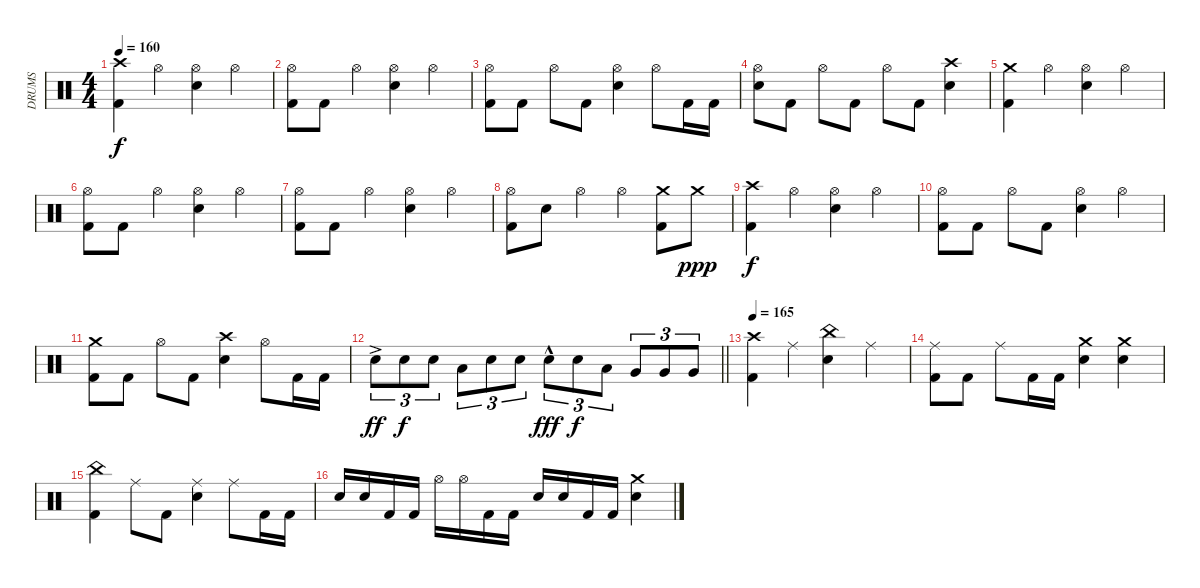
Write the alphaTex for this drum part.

\track ("DRUMS" "DRUMS") {instrument percussion}
\staff {score}
\articulation defaults
\ts (4 4)
\tempo 160
\clef neutral
\ks c
("Crash high (hit)" "Kick (hit) 2").4{dy f} "Hi-Hat (open)".4 ("Hi-Hat (open)" "Snare (hit) 2").4 "Hi-Hat (open)".4 |
("Hi-Hat (open)" "Kick (hit) 2").8 "Kick (hit) 2".8 "Hi-Hat (open)".4 ("Hi-Hat (open)" "Snare (hit) 2").4 "Hi-Hat (open)".4 |
("Hi-Hat (open)" "Kick (hit) 2").8 "Kick (hit) 2".8 "Hi-Hat (open)".8 "Kick (hit) 2".8 ("Hi-Hat (open)" "Snare (hit) 2").4 "Hi-Hat (open)".8 "Kick (hit) 2".16 "Kick (hit) 2".16 |
("Hi-Hat (open)" "Snare (hit) 2").8 "Kick (hit) 2".8 "Hi-Hat (open)".8 "Kick (hit) 2".8 "Hi-Hat (open)".8 "Kick (hit) 2".8 ("Crash high (hit)" "Snare (hit) 2").4 |
("Crash medium (hit)" "Kick (hit) 2").4 "Hi-Hat (open)".4 ("Hi-Hat (open)" "Snare (hit) 2").4 "Hi-Hat (open)".4 |
("Hi-Hat (open)" "Kick (hit) 2").8 "Kick (hit) 2".8 "Hi-Hat (open)".4 ("Hi-Hat (open)" "Snare (hit) 2").4 "Hi-Hat (open)".4 |
("Hi-Hat (open)" "Kick (hit) 2").8 "Kick (hit) 2".8 "Hi-Hat (open)".4 ("Hi-Hat (open)" "Snare (hit) 2").4 "Hi-Hat (open)".4 |
("Hi-Hat (open)" "Kick (hit) 2").8 "Snare (hit) 2".8 "Hi-Hat (open)".4 "Hi-Hat (open)".4 ("Crash medium (hit)" "Kick (hit) 2").8 "Crash medium (hit)".8{dy ppp} |
("Crash high (hit)" "Kick (hit) 2").4{dy f} "Hi-Hat (open)".4 ("Hi-Hat (open)" "Snare (hit) 2").4 "Hi-Hat (open)".4 |
("Hi-Hat (open)" "Kick (hit) 2").8 "Kick (hit) 2".8 "Hi-Hat (open)".8 "Kick (hit) 2".8 ("Hi-Hat (open)" "Snare (hit) 2").4 "Hi-Hat (open)".4 |
("Crash medium (hit)" "Kick (hit) 2").8 "Kick (hit) 2".8 "Hi-Hat (open)".8 "Kick (hit) 2".8 ("Crash high (hit)" "Snare (hit) 2").4 "Hi-Hat (open)".8 "Kick (hit) 2".16 "Kick (hit) 2".16 |
\barLineRight lightlight "Snare (hit) 2"{ac}.8{tu (3 2) dy ff} "Snare (hit) 2".8{tu (3 2) dy f} "Snare (hit) 2".8{tu (3 2)} "Low Tom (hit)".8{tu (3 2)} "Snare (hit) 2".8{tu (3 2)} "Snare (hit) 2".8{tu (3 2)} "Snare (hit) 2"{hac}.8{tu (3 2) dy fff} "Snare (hit) 2".8{tu (3 2) dy f} "Low Tom (hit)".8{tu (3 2)} "Very Low Tom (hit)".8{tu (3 2)} "Very Low Tom (hit)".8{tu (3 2)} "Very Low Tom (hit)".8{tu (3 2)}
|
\tempo 165
("Crash high (hit)" "Kick (hit) 2").4 "Ride (middle)".4 ("China (hit)" "Snare (hit) 2").4 "Ride (middle)".4 |
("Ride (middle)" "Kick (hit) 2").8 "Kick (hit) 2".8 "Ride (middle)".8 "Kick (hit) 2".16 "Kick (hit) 2".16 ("Crash medium (hit)" "Snare (hit) 2").4 ("Crash medium (hit)" "Snare (hit) 2").4 |
("China (hit)" "Kick (hit) 2").4 "Ride (middle)".8 "Kick (hit) 2".8 ("Ride (middle)" "Snare (hit) 2").4 "Ride (middle)".8 "Kick (hit) 2".16 "Kick (hit) 2".16 |
"Snare (hit) 2".16 "Snare (hit) 2".16 "Kick (hit) 2".16 "Kick (hit) 2".16 "Hi-Hat (open)".16 "Hi-Hat (open)".16 "Kick (hit) 2".16 "Kick (hit) 2".16 "Snare (hit) 2".16 "Snare (hit) 2".16 "Kick (hit) 2".16 "Kick (hit) 2".16 ("Crash medium (hit)" "Snare (hit) 2").4
